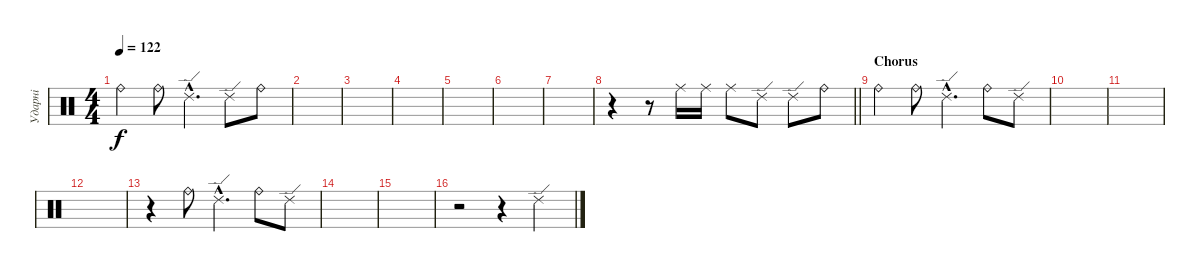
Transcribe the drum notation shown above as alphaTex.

\track ("Ударні" "Ударні") {instrument percussion}
\staff {score}
\articulation defaults
\ts (4 4)
\tempo 122
\clef neutral
\ks c "Ride (bell)".4{dy f} "Ride (bell)".8 "Ride (edge) 2"{hac}.4{d} "Ride (edge) 2".8 "Ride (bell)".8
|
|
|
|
|
|
|
\barLineRight lightlight
r.4 r.8 "Ride (middle)".16 "Ride (middle)".16 "Ride (middle)".8 "Ride (edge) 2".8 "Ride (edge) 2".8 "Ride (bell)".8 |
\section ("" "Chorus")
"Ride (bell)".4 "Ride (bell)".8 "Ride (edge) 2"{hac}.4{d} "Ride (bell)".8 "Ride (edge) 2".8 |
|
|
|
r.4 "Ride (bell)".8 "Ride (edge) 2"{hac}.4{d} "Ride (bell)".8 "Ride (edge) 2".8 |
|
|
r.2 r.4 "Ride (edge) 2".4
